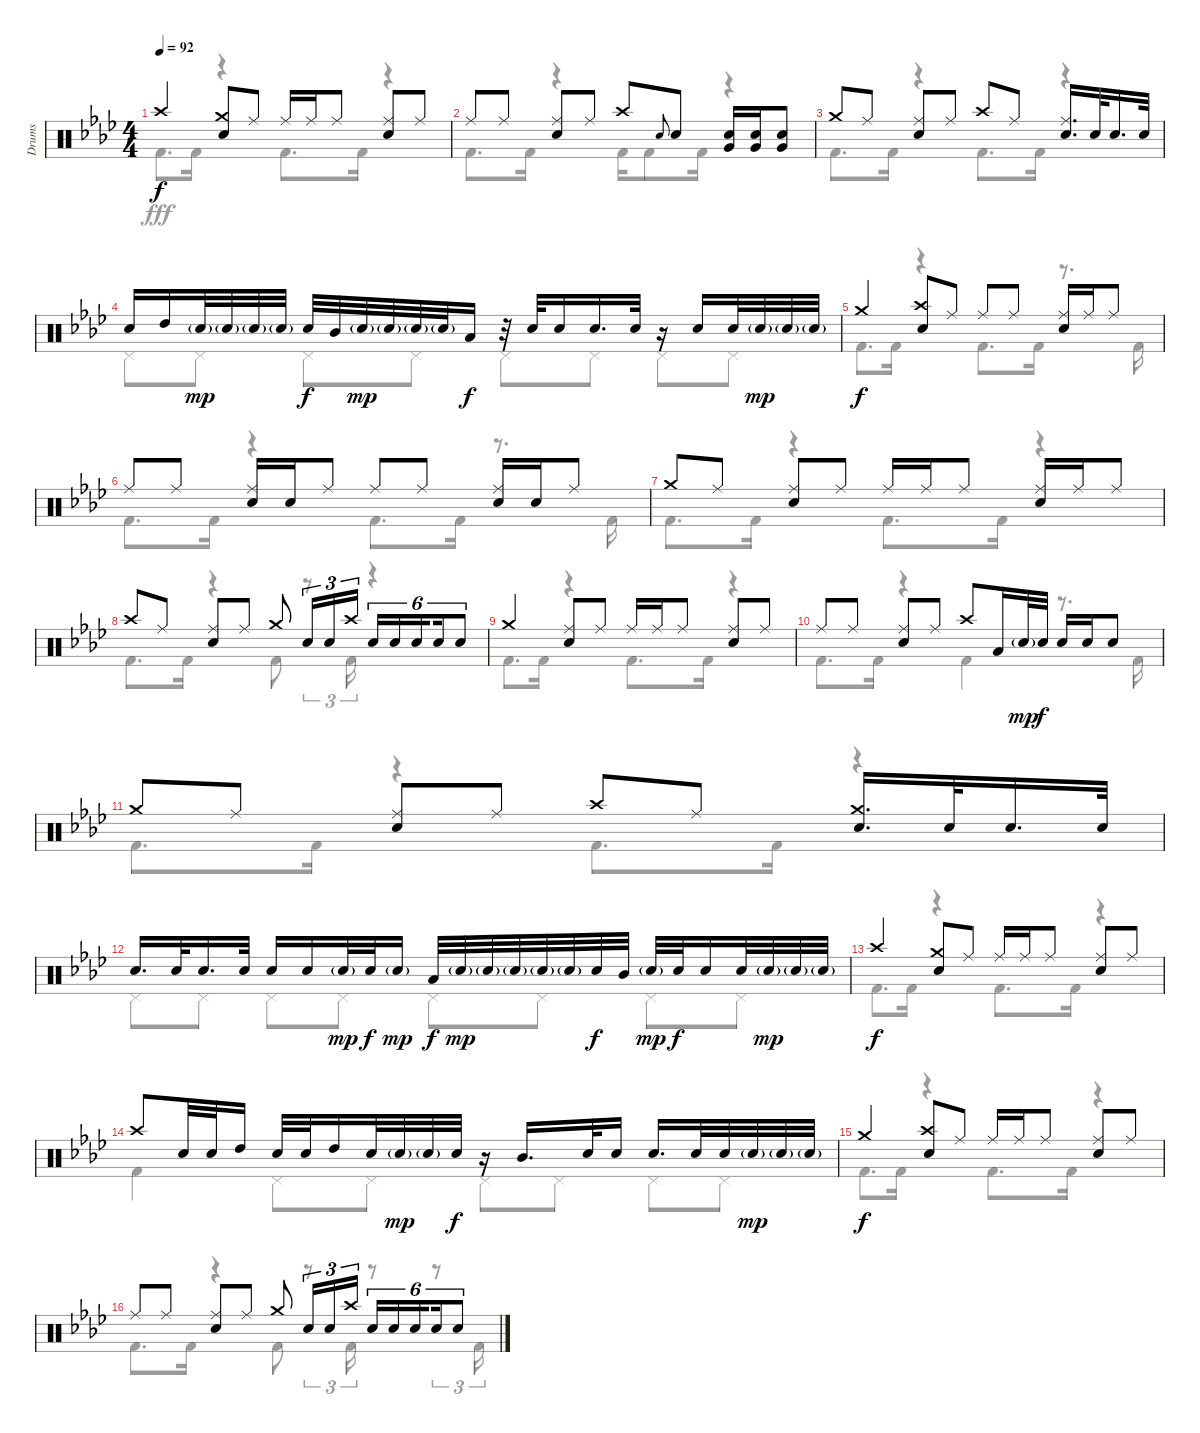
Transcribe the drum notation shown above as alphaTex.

\track ("Drums" "Drums") {instrument percussion}
\staff {score}
\articulation defaults
\voice
\ts (4 4)
\tempo 92
\clef neutral
\ks ab "Crash high (hit)".4{dy f}
("Crash medium (hit)" "Snare (hit) 2").8 "Ride (middle)".8 "Ride (middle)".16 "Ride (middle)".16 "Ride (middle)".8 ("Ride (middle)" "Snare (hit) 2").8 "Ride (middle)".8 |
"Ride (middle)".8 "Ride (middle)".8 ("Ride (middle)" "Snare (hit) 2").8 "Ride (middle)".8 "Crash high (hit)".8 "Snare (hit) 2".8{gr onbeat} "Snare (hit) 2".8 ("Snare (hit) 2" "Very Low Tom (hit)").16 ("Snare (hit) 2" "Very Low Tom (hit)").16 ("Snare (hit) 2" "Very Low Tom (hit)").8 |
"Crash medium (hit)".8 "Ride (middle)".8 ("Ride (middle)" "Snare (hit) 2").8 "Ride (middle)".8 "Crash high (hit)".8 "Ride (middle)".8 ("Ride (middle)" "Snare (hit) 2").16{d} "Snare (hit) 2".32 "Snare (hit) 2".16{d} "Snare (hit) 2".32 |
"Snare (hit) 2".16 "High Tom (hit)".16 "Snare (hit) 2"{g}.32{dy mp} "Snare (hit) 2"{g}.32 "Snare (hit) 2"{g}.32 "Snare (hit) 2"{g}.32 "Snare (hit) 2".32{dy f} "Mid Tom (hit)".32 "Snare (hit) 2"{g}.32{dy mp} "Snare (hit) 2"{g}.32 "Snare (hit) 2"{g}.32 "Snare (hit) 2"{g}.32 "Low Tom (hit)".16{dy f} r.32 "Snare (hit) 2".32 "Snare (hit) 2".16 "Snare (hit) 2".16{d} "Snare (hit) 2".32 r.16 "Snare (hit) 2".16 "Snare (hit) 2".32 "Snare (hit) 2"{g}.32{dy mp} "Snare (hit) 2"{g}.32 "Snare (hit) 2"{g}.32 |
"Crash medium (hit)".4{dy f} ("Crash high (hit)" "Snare (hit) 2").8 "Ride (middle)".8 "Ride (middle)".8 "Ride (middle)".8 ("Ride (middle)" "Snare (hit) 2").16 "Ride (middle)".16 "Ride (middle)".8 |
"Ride (middle)".8 "Ride (middle)".8 ("Ride (middle)" "Snare (hit) 2").16 "Snare (hit) 2".16 "Ride (middle)".8 "Ride (middle)".8 "Ride (middle)".8 ("Ride (middle)" "Snare (hit) 2").16 "Snare (hit) 2".16 "Ride (middle)".8 |
"Crash medium (hit)".8 "Ride (middle)".8 ("Ride (middle)" "Snare (hit) 2").8 "Ride (middle)".8 "Ride (middle)".16 "Ride (middle)".16 "Ride (middle)".8 ("Ride (middle)" "Snare (hit) 2").16 "Ride (middle)".16 "Ride (middle)".8 |
"Crash high (hit)".8 "Ride (middle)".8 ("Ride (middle)" "Snare (hit) 2").8 "Ride (middle)".8 "Crash medium (hit)".8 "Snare (hit) 2".16{tu (3 2)} "Snare (hit) 2".16{tu (3 2)} "Crash high (hit)".16{tu (3 2)} "Snare (hit) 2".16{tu (6 4)} "Snare (hit) 2".16{tu (6 4)} "Snare (hit) 2".16{tu (6 4) beam splitsecondary} "Snare (hit) 2".16{tu (6 4)} "Snare (hit) 2".8{tu (6 4)} |
"Crash medium (hit)".4 ("Ride (middle)" "Snare (hit) 2").8 "Ride (middle)".8 "Ride (middle)".16 "Ride (middle)".16 "Ride (middle)".8 ("Ride (middle)" "Snare (hit) 2").8 "Ride (middle)".8 |
"Ride (middle)".8 "Ride (middle)".8 ("Ride (middle)" "Snare (hit) 2").8 "Ride (middle)".8 "Crash high (hit)".8 "Low Tom (hit)".16 "Snare (hit) 2"{g}.32{dy mp} "Snare (hit) 2".32{dy f} "Snare (hit) 2".16 "Snare (hit) 2".16 "Snare (hit) 2".8 |
"Crash medium (hit)".8 "Ride (middle)".8 ("Ride (middle)" "Snare (hit) 2").8 "Ride (middle)".8 "Crash high (hit)".8 "Ride (middle)".8 ("Crash medium (hit)" "Snare (hit) 2").16{d} "Snare (hit) 2".32 "Snare (hit) 2".16{d} "Snare (hit) 2".32 |
"Snare (hit) 2".16{d} "Snare (hit) 2".32 "Snare (hit) 2".16{d} "Snare (hit) 2".32 "Snare (hit) 2".16 "Snare (hit) 2".16 "Snare (hit) 2"{g}.32{dy mp} "Snare (hit) 2".32{dy f} "Snare (hit) 2"{g}.16{dy mp} "Low Tom (hit)".32{dy f} "Snare (hit) 2"{g}.32{dy mp} "Snare (hit) 2"{g}.32 "Snare (hit) 2"{g}.32 "Snare (hit) 2"{g}.32 "Snare (hit) 2"{g}.32 "Snare (hit) 2".32{dy f} "Mid Tom (hit)".32 "Snare (hit) 2"{g}.32{dy mp} "Snare (hit) 2".32{dy f} "Snare (hit) 2".16 "Snare (hit) 2".32 "Snare (hit) 2"{g}.32{dy mp} "Snare (hit) 2"{g}.32 "Snare (hit) 2"{g}.32 |
"Crash high (hit)".4{dy f} ("Crash medium (hit)" "Snare (hit) 2").8 "Ride (middle)".8 "Ride (middle)".16 "Ride (middle)".16 "Ride (middle)".8 ("Ride (middle)" "Snare (hit) 2").8 "Ride (middle)".8 |
"Crash high (hit)".8 "Snare (hit) 2".32 "Snare (hit) 2".32 "High Tom (hit)".16 "Snare (hit) 2".32 "Snare (hit) 2".32 "High Tom (hit)".16 "Snare (hit) 2".32 "Snare (hit) 2"{g}.32{dy mp} "Snare (hit) 2"{g}.32 "Snare (hit) 2".32{dy f} r.16 "Mid Tom (hit)".16{d} "Snare (hit) 2".32 "Snare (hit) 2".16 "Snare (hit) 2".16{d} "Snare (hit) 2".32 "Snare (hit) 2".32 "Snare (hit) 2"{g}.32{dy mp} "Snare (hit) 2"{g}.32 "Snare (hit) 2"{g}.32 |
"Crash medium (hit)".4{dy f} ("Crash high (hit)" "Snare (hit) 2").8 "Ride (middle)".8 "Ride (middle)".16 "Ride (middle)".16 "Ride (middle)".8 ("Ride (middle)" "Snare (hit) 2").8 "Ride (middle)".8 |
"Ride (middle)".8 "Ride (middle)".8 ("Ride (middle)" "Snare (hit) 2").8 "Ride (middle)".8 "Crash medium (hit)".8 "Snare (hit) 2".16{tu (3 2)} "Snare (hit) 2".16{tu (3 2)} "Crash high (hit)".16{tu (3 2)} "Snare (hit) 2".16{tu (6 4)} "Snare (hit) 2".16{tu (6 4)} "Snare (hit) 2".16{tu (6 4) beam splitsecondary} "Snare (hit) 2".16{tu (6 4)} "Snare (hit) 2".8{tu (6 4)}
\voice
\clef neutral
\ottava regular
\simile none
\ks ab "Kick (hit) 2".8{d dy fff} "Kick (hit) 2".16
r.4 "Kick (hit) 2".8{d} "Kick (hit) 2".16 r.4 |
"Kick (hit) 2".8{d} "Kick (hit) 2".16 r.4 "Kick (hit) 2".16 "Kick (hit) 2".8 "Kick (hit) 2".16 r.4 |
"Kick (hit) 2".8{d} "Kick (hit) 2".16 r.4 "Kick (hit) 2".8{d} "Kick (hit) 2".16 r.4 |
"Pedal Hi-Hat (hit)".8 "Pedal Hi-Hat (hit)".8 "Pedal Hi-Hat (hit)".8 "Pedal Hi-Hat (hit)".8 "Pedal Hi-Hat (hit)".8 "Pedal Hi-Hat (hit)".8 "Pedal Hi-Hat (hit)".8 "Pedal Hi-Hat (hit)".8 |
"Kick (hit) 2".8{d} "Kick (hit) 2".16 r.4 "Kick (hit) 2".8{d} "Kick (hit) 2".16 r.8{d} "Kick (hit) 2".16 |
"Kick (hit) 2".8{d} "Kick (hit) 2".16 r.4 "Kick (hit) 2".8{d} "Kick (hit) 2".16 r.8{d} "Kick (hit) 2".16 |
"Kick (hit) 2".8{d} "Kick (hit) 2".16 r.4 "Kick (hit) 2".8{d} "Kick (hit) 2".16 r.4 |
"Kick (hit) 2".8{d} "Kick (hit) 2".16 r.4 "Kick (hit) 2".8 r.8{tu (3 2)} "Kick (hit) 2".16{tu (3 2)} r.4 |
"Kick (hit) 2".8{d} "Kick (hit) 2".16 r.4 "Kick (hit) 2".8{d} "Kick (hit) 2".16 r.4 |
"Kick (hit) 2".8{d} "Kick (hit) 2".16 r.4 "Kick (hit) 2".4 r.8{d} "Kick (hit) 2".16 |
"Kick (hit) 2".8{d} "Kick (hit) 2".16 r.4 "Kick (hit) 2".8{d} "Kick (hit) 2".16 r.4 |
"Pedal Hi-Hat (hit)".8 "Pedal Hi-Hat (hit)".8 "Pedal Hi-Hat (hit)".8 "Pedal Hi-Hat (hit)".8 "Pedal Hi-Hat (hit)".8 "Pedal Hi-Hat (hit)".8 "Pedal Hi-Hat (hit)".8 "Pedal Hi-Hat (hit)".8 |
"Kick (hit) 2".8{d} "Kick (hit) 2".16 r.4 "Kick (hit) 2".8{d} "Kick (hit) 2".16 r.4 |
"Kick (hit) 2".4 "Pedal Hi-Hat (hit)".8 "Pedal Hi-Hat (hit)".8 "Pedal Hi-Hat (hit)".8 "Pedal Hi-Hat (hit)".8 "Pedal Hi-Hat (hit)".8 "Pedal Hi-Hat (hit)".8 |
"Kick (hit) 2".8{d} "Kick (hit) 2".16 r.4 "Kick (hit) 2".8{d} "Kick (hit) 2".16 r.4 |
"Kick (hit) 2".8{d} "Kick (hit) 2".16 r.4 "Kick (hit) 2".8 r.8{tu (3 2)} "Kick (hit) 2".16{tu (3 2)} r.8 r.8{tu (3 2)} "Kick (hit) 2".16{tu (3 2)}
